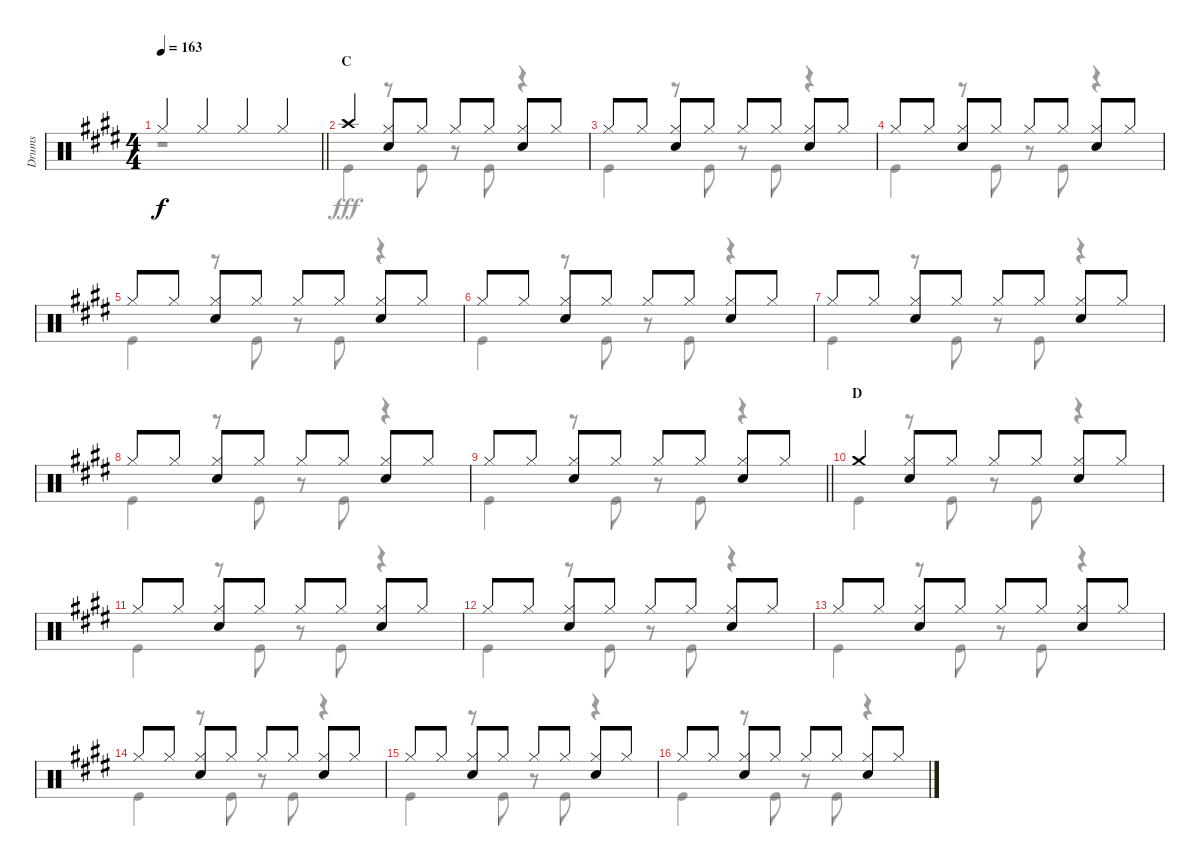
\track ("Drums" "Drums") {instrument percussion}
\staff {score}
\articulation defaults
\voice
\ts (4 4)
\tempo 163
\clef neutral
\barLineRight lightlight
\ks e "Hi-Hat (closed)".4{dy f} "Hi-Hat (closed)".4 "Hi-Hat (closed)".4 "Hi-Hat (closed)".4
|
\section ("" "C")
"Crash high (hit)".4 ("Hi-Hat (closed)" "Snare (hit) 2").8 "Hi-Hat (closed)".8 "Hi-Hat (closed)".8 "Hi-Hat (closed)".8 ("Hi-Hat (closed)" "Snare (hit) 2").8 "Hi-Hat (closed)".8 |
"Hi-Hat (closed)".8 "Hi-Hat (closed)".8 ("Hi-Hat (closed)" "Snare (hit) 2").8 "Hi-Hat (closed)".8 "Hi-Hat (closed)".8 "Hi-Hat (closed)".8 ("Hi-Hat (closed)" "Snare (hit) 2").8 "Hi-Hat (closed)".8 |
"Hi-Hat (closed)".8 "Hi-Hat (closed)".8 ("Hi-Hat (closed)" "Snare (hit) 2").8 "Hi-Hat (closed)".8 "Hi-Hat (closed)".8 "Hi-Hat (closed)".8 ("Hi-Hat (closed)" "Snare (hit) 2").8 "Hi-Hat (closed)".8 |
"Hi-Hat (closed)".8 "Hi-Hat (closed)".8 ("Hi-Hat (closed)" "Snare (hit) 2").8 "Hi-Hat (closed)".8 "Hi-Hat (closed)".8 "Hi-Hat (closed)".8 ("Hi-Hat (closed)" "Snare (hit) 2").8 "Hi-Hat (closed)".8 |
"Hi-Hat (closed)".8 "Hi-Hat (closed)".8 ("Hi-Hat (closed)" "Snare (hit) 2").8 "Hi-Hat (closed)".8 "Hi-Hat (closed)".8 "Hi-Hat (closed)".8 ("Hi-Hat (closed)" "Snare (hit) 2").8 "Hi-Hat (closed)".8 |
"Hi-Hat (closed)".8 "Hi-Hat (closed)".8 ("Hi-Hat (closed)" "Snare (hit) 2").8 "Hi-Hat (closed)".8 "Hi-Hat (closed)".8 "Hi-Hat (closed)".8 ("Hi-Hat (closed)" "Snare (hit) 2").8 "Hi-Hat (closed)".8 |
"Hi-Hat (closed)".8 "Hi-Hat (closed)".8 ("Hi-Hat (closed)" "Snare (hit) 2").8 "Hi-Hat (closed)".8 "Hi-Hat (closed)".8 "Hi-Hat (closed)".8 ("Hi-Hat (closed)" "Snare (hit) 2").8 "Hi-Hat (closed)".8 |
\barLineRight lightlight "Hi-Hat (closed)".8 "Hi-Hat (closed)".8
("Hi-Hat (closed)" "Snare (hit) 2").8 "Hi-Hat (closed)".8 "Hi-Hat (closed)".8 "Hi-Hat (closed)".8 ("Hi-Hat (closed)" "Snare (hit) 2").8 "Hi-Hat (closed)".8 |
\section ("" "D")
"Crash medium (hit)".4 ("Hi-Hat (closed)" "Snare (hit) 2").8 "Hi-Hat (closed)".8 "Hi-Hat (closed)".8 "Hi-Hat (closed)".8 ("Hi-Hat (closed)" "Snare (hit) 2").8 "Hi-Hat (closed)".8 |
"Hi-Hat (closed)".8 "Hi-Hat (closed)".8 ("Hi-Hat (closed)" "Snare (hit) 2").8 "Hi-Hat (closed)".8 "Hi-Hat (closed)".8 "Hi-Hat (closed)".8 ("Hi-Hat (closed)" "Snare (hit) 2").8 "Hi-Hat (closed)".8 |
"Hi-Hat (closed)".8 "Hi-Hat (closed)".8 ("Hi-Hat (closed)" "Snare (hit) 2").8 "Hi-Hat (closed)".8 "Hi-Hat (closed)".8 "Hi-Hat (closed)".8 ("Hi-Hat (closed)" "Snare (hit) 2").8 "Hi-Hat (closed)".8 |
"Hi-Hat (closed)".8 "Hi-Hat (closed)".8 ("Hi-Hat (closed)" "Snare (hit) 2").8 "Hi-Hat (closed)".8 "Hi-Hat (closed)".8 "Hi-Hat (closed)".8 ("Hi-Hat (closed)" "Snare (hit) 2").8 "Hi-Hat (closed)".8 |
"Hi-Hat (closed)".8 "Hi-Hat (closed)".8 ("Hi-Hat (closed)" "Snare (hit) 2").8 "Hi-Hat (closed)".8 "Hi-Hat (closed)".8 "Hi-Hat (closed)".8 ("Hi-Hat (closed)" "Snare (hit) 2").8 "Hi-Hat (closed)".8 |
"Hi-Hat (closed)".8 "Hi-Hat (closed)".8 ("Hi-Hat (closed)" "Snare (hit) 2").8 "Hi-Hat (closed)".8 "Hi-Hat (closed)".8 "Hi-Hat (closed)".8 ("Hi-Hat (closed)" "Snare (hit) 2").8 "Hi-Hat (closed)".8 |
"Hi-Hat (closed)".8 "Hi-Hat (closed)".8 ("Hi-Hat (closed)" "Snare (hit) 2").8 "Hi-Hat (closed)".8 "Hi-Hat (closed)".8 "Hi-Hat (closed)".8 ("Hi-Hat (closed)" "Snare (hit) 2").8 "Hi-Hat (closed)".8
\voice
\clef neutral
\ottava regular
\simile none
\barLineRight lightlight
\ks e
r.1{dy fff} |
"Kick (hit)".4 r.8 "Kick (hit)".8 r.8 "Kick (hit)".8 r.4 |
"Kick (hit)".4 r.8 "Kick (hit)".8 r.8 "Kick (hit)".8 r.4 |
"Kick (hit)".4 r.8 "Kick (hit)".8 r.8 "Kick (hit)".8 r.4 |
"Kick (hit)".4 r.8 "Kick (hit)".8 r.8 "Kick (hit)".8 r.4 |
"Kick (hit)".4 r.8 "Kick (hit)".8 r.8 "Kick (hit)".8 r.4 |
"Kick (hit)".4 r.8 "Kick (hit)".8 r.8 "Kick (hit)".8 r.4 |
"Kick (hit)".4 r.8 "Kick (hit)".8 r.8 "Kick (hit)".8 r.4 |
\barLineRight lightlight "Kick (hit)".4
r.8 "Kick (hit)".8 r.8 "Kick (hit)".8 r.4 |
"Kick (hit)".4 r.8 "Kick (hit)".8 r.8 "Kick (hit)".8 r.4 |
"Kick (hit)".4 r.8 "Kick (hit)".8 r.8 "Kick (hit)".8 r.4 |
"Kick (hit)".4 r.8 "Kick (hit)".8 r.8 "Kick (hit)".8 r.4 |
"Kick (hit)".4 r.8 "Kick (hit)".8 r.8 "Kick (hit)".8 r.4 |
"Kick (hit)".4 r.8 "Kick (hit)".8 r.8 "Kick (hit)".8 r.4 |
"Kick (hit)".4 r.8 "Kick (hit)".8 r.8 "Kick (hit)".8 r.4 |
"Kick (hit)".4 r.8 "Kick (hit)".8 r.8 "Kick (hit)".8 r.4
